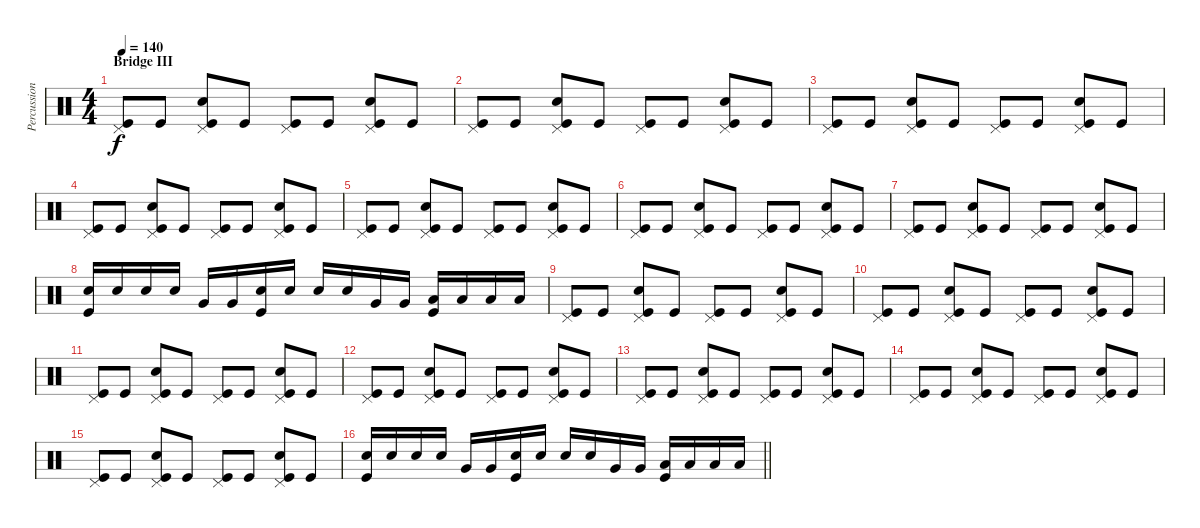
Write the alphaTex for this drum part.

\track ("Percussion" "Percussion") {instrument percussion}
\staff {score}
\articulation defaults
\ts (4 4)
\section ("" "Bridge III")
\tempo 140
\clef neutral
\ks c
("Pedal Hi-Hat (hit)" "Kick (hit)").8{dy f} "Kick (hit)".8 ("Pedal Hi-Hat (hit)" "Snare (hit) 2" "Kick (hit)").8 "Kick (hit)".8 ("Pedal Hi-Hat (hit)" "Kick (hit)").8 "Kick (hit)".8 ("Pedal Hi-Hat (hit)" "Snare (hit) 2" "Kick (hit)").8 "Kick (hit)".8 |
("Pedal Hi-Hat (hit)" "Kick (hit)").8 "Kick (hit)".8 ("Pedal Hi-Hat (hit)" "Snare (hit) 2" "Kick (hit)").8 "Kick (hit)".8 ("Pedal Hi-Hat (hit)" "Kick (hit)").8 "Kick (hit)".8 ("Pedal Hi-Hat (hit)" "Snare (hit) 2" "Kick (hit)").8 "Kick (hit)".8 |
("Pedal Hi-Hat (hit)" "Kick (hit)").8 "Kick (hit)".8 ("Pedal Hi-Hat (hit)" "Snare (hit) 2" "Kick (hit)").8 "Kick (hit)".8 ("Pedal Hi-Hat (hit)" "Kick (hit)").8 "Kick (hit)".8 ("Pedal Hi-Hat (hit)" "Snare (hit) 2" "Kick (hit)").8 "Kick (hit)".8 |
("Pedal Hi-Hat (hit)" "Kick (hit)").8 "Kick (hit)".8 ("Pedal Hi-Hat (hit)" "Snare (hit) 2" "Kick (hit)").8 "Kick (hit)".8 ("Pedal Hi-Hat (hit)" "Kick (hit)").8 "Kick (hit)".8 ("Pedal Hi-Hat (hit)" "Snare (hit) 2" "Kick (hit)").8 "Kick (hit)".8 |
("Pedal Hi-Hat (hit)" "Kick (hit)").8 "Kick (hit)".8 ("Pedal Hi-Hat (hit)" "Snare (hit) 2" "Kick (hit)").8 "Kick (hit)".8 ("Pedal Hi-Hat (hit)" "Kick (hit)").8 "Kick (hit)".8 ("Pedal Hi-Hat (hit)" "Snare (hit) 2" "Kick (hit)").8 "Kick (hit)".8 |
("Pedal Hi-Hat (hit)" "Kick (hit)").8 "Kick (hit)".8 ("Pedal Hi-Hat (hit)" "Snare (hit) 2" "Kick (hit)").8 "Kick (hit)".8 ("Pedal Hi-Hat (hit)" "Kick (hit)").8 "Kick (hit)".8 ("Pedal Hi-Hat (hit)" "Snare (hit) 2" "Kick (hit)").8 "Kick (hit)".8 |
("Pedal Hi-Hat (hit)" "Kick (hit)").8 "Kick (hit)".8 ("Pedal Hi-Hat (hit)" "Snare (hit) 2" "Kick (hit)").8 "Kick (hit)".8 ("Pedal Hi-Hat (hit)" "Kick (hit)").8 "Kick (hit)".8 ("Pedal Hi-Hat (hit)" "Snare (hit) 2" "Kick (hit)").8 "Kick (hit)".8 |
("Snare (hit) 2" "Kick (hit)").16 "Snare (hit) 2".16 "Snare (hit) 2".16 "Snare (hit) 2".16 "Very Low Tom (hit)".16 "Very Low Tom (hit)".16 ("Snare (hit) 2" "Kick (hit)").16 "Snare (hit) 2".16 "Snare (hit) 2".16 "Snare (hit) 2".16 "Very Low Tom (hit)".16 "Very Low Tom (hit)".16 ("Low Floor Tom (hit)" "Kick (hit)").16 "Low Floor Tom (hit)".16 "Low Floor Tom (hit)".16 "Low Floor Tom (hit)".16 |
("Pedal Hi-Hat (hit)" "Kick (hit)").8 "Kick (hit)".8 ("Pedal Hi-Hat (hit)" "Snare (hit) 2" "Kick (hit)").8 "Kick (hit)".8 ("Pedal Hi-Hat (hit)" "Kick (hit)").8 "Kick (hit)".8 ("Pedal Hi-Hat (hit)" "Snare (hit) 2" "Kick (hit)").8 "Kick (hit)".8 |
("Pedal Hi-Hat (hit)" "Kick (hit)").8 "Kick (hit)".8 ("Pedal Hi-Hat (hit)" "Snare (hit) 2" "Kick (hit)").8 "Kick (hit)".8 ("Pedal Hi-Hat (hit)" "Kick (hit)").8 "Kick (hit)".8 ("Pedal Hi-Hat (hit)" "Snare (hit) 2" "Kick (hit)").8 "Kick (hit)".8 |
("Pedal Hi-Hat (hit)" "Kick (hit)").8 "Kick (hit)".8 ("Pedal Hi-Hat (hit)" "Snare (hit) 2" "Kick (hit)").8 "Kick (hit)".8 ("Pedal Hi-Hat (hit)" "Kick (hit)").8 "Kick (hit)".8 ("Pedal Hi-Hat (hit)" "Snare (hit) 2" "Kick (hit)").8 "Kick (hit)".8 |
("Pedal Hi-Hat (hit)" "Kick (hit)").8 "Kick (hit)".8 ("Pedal Hi-Hat (hit)" "Snare (hit) 2" "Kick (hit)").8 "Kick (hit)".8 ("Pedal Hi-Hat (hit)" "Kick (hit)").8 "Kick (hit)".8 ("Pedal Hi-Hat (hit)" "Snare (hit) 2" "Kick (hit)").8 "Kick (hit)".8 |
("Pedal Hi-Hat (hit)" "Kick (hit)").8 "Kick (hit)".8 ("Pedal Hi-Hat (hit)" "Snare (hit) 2" "Kick (hit)").8 "Kick (hit)".8 ("Pedal Hi-Hat (hit)" "Kick (hit)").8 "Kick (hit)".8 ("Pedal Hi-Hat (hit)" "Snare (hit) 2" "Kick (hit)").8 "Kick (hit)".8 |
("Pedal Hi-Hat (hit)" "Kick (hit)").8 "Kick (hit)".8 ("Pedal Hi-Hat (hit)" "Snare (hit) 2" "Kick (hit)").8 "Kick (hit)".8 ("Pedal Hi-Hat (hit)" "Kick (hit)").8 "Kick (hit)".8 ("Pedal Hi-Hat (hit)" "Snare (hit) 2" "Kick (hit)").8 "Kick (hit)".8 |
("Pedal Hi-Hat (hit)" "Kick (hit)").8 "Kick (hit)".8 ("Pedal Hi-Hat (hit)" "Snare (hit) 2" "Kick (hit)").8 "Kick (hit)".8 ("Pedal Hi-Hat (hit)" "Kick (hit)").8 "Kick (hit)".8 ("Pedal Hi-Hat (hit)" "Snare (hit) 2" "Kick (hit)").8 "Kick (hit)".8 |
\barLineRight lightlight
("Snare (hit) 2" "Kick (hit)").16 "Snare (hit) 2".16 "Snare (hit) 2".16 "Snare (hit) 2".16 "Very Low Tom (hit)".16 "Very Low Tom (hit)".16 ("Snare (hit) 2" "Kick (hit)").16 "Snare (hit) 2".16 "Snare (hit) 2".16 "Snare (hit) 2".16 "Very Low Tom (hit)".16 "Very Low Tom (hit)".16 ("Low Floor Tom (hit)" "Kick (hit)").16 "Low Floor Tom (hit)".16 "Low Floor Tom (hit)".16 "Low Floor Tom (hit)".16
